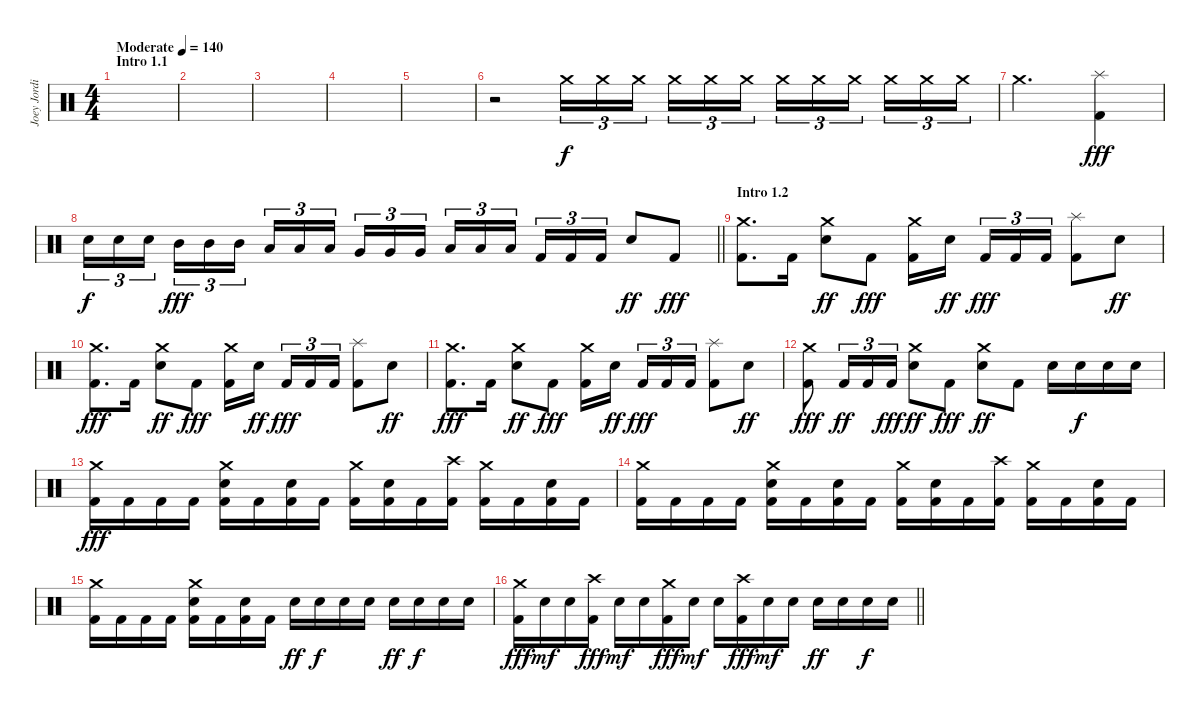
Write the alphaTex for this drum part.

\track ("Joey Jordison" "Joey Jordi") {instrument percussion}
\staff {score}
\articulation defaults
\ts (4 4)
\section ("" "Intro 1.1")
\tempo (140 "Moderate")
\clef neutral
\ks c
|
|
|
|
|
r.2{volume 2} "Crash medium (hit)".16{tu (3 2) volume 5} "Crash medium (hit)".16{tu (3 2)} "Crash medium (hit)".16{tu (3 2) beam splitsecondary} "Crash medium (hit)".16{tu (3 2)} "Crash medium (hit)".16{tu (3 2)} "Crash medium (hit)".16{tu (3 2)} "Crash medium (hit)".16{tu (3 2)} "Crash medium (hit)".16{tu (3 2)} "Crash medium (hit)".16{tu (3 2) beam splitsecondary} "Crash medium (hit)".16{tu (3 2)} "Crash medium (hit)".16{tu (3 2)} "Crash medium (hit)".16{tu (3 2)} |
"Crash medium (hit)".2{d} ("Splash (hit)" "Kick (hit) 2").4{dy fff volume 13} |
\barLineRight lightlight "Electric Snare (hit)".16{tu (3 2) dy f} "Electric Snare (hit)".16{tu (3 2)} "Electric Snare (hit)".16{tu (3 2) beam splitsecondary} "Mid Tom (hit)".16{tu (3 2) dy fff} "Mid Tom (hit)".16{tu (3 2)} "Mid Tom (hit)".16{tu (3 2)} "Low Tom (hit)".16{tu (3 2)} "Low Tom (hit)".16{tu (3 2)} "Low Tom (hit)".16{tu (3 2) beam splitsecondary} "Very Low Tom (hit)".16{tu (3 2)} "Very Low Tom (hit)".16{tu (3 2)} "Very Low Tom (hit)".16{tu (3 2)} "Low Floor Tom (hit)".16{tu (3 2)} "Low Floor Tom (hit)".16{tu (3 2)} "Low Floor Tom (hit)".16{tu (3 2) beam splitsecondary} "Kick (hit) 2".16{tu (3 2)} "Kick (hit) 2".16{tu (3 2)} "Kick (hit) 2".16{tu (3 2)} "Electric Snare (hit)".8{dy ff} "Kick (hit) 2".8{dy fff}
|
\section ("" "Intro 1.2")
("Crash medium (hit)" "Kick (hit) 2").8{d} "Kick (hit) 2".16 ("Crash medium (hit)" "Electric Snare (hit)").8{dy ff} "Kick (hit) 2".8{dy fff} ("Crash medium (hit)" "Kick (hit) 2").16 "Electric Snare (hit)".16{dy ff beam splitsecondary} "Kick (hit) 2".16{tu (3 2) dy fff} "Kick (hit) 2".16{tu (3 2)} "Kick (hit) 2".16{tu (3 2)} ("Splash (hit)" "Kick (hit) 2").8 "Electric Snare (hit)".8{dy ff} |
("Crash medium (hit)" "Kick (hit) 2").8{d dy fff} "Kick (hit) 2".16 ("Crash medium (hit)" "Electric Snare (hit)").8{dy ff} "Kick (hit) 2".8{dy fff} ("Crash medium (hit)" "Kick (hit) 2").16 "Electric Snare (hit)".16{dy ff beam splitsecondary} "Kick (hit) 2".16{tu (3 2) dy fff} "Kick (hit) 2".16{tu (3 2)} "Kick (hit) 2".16{tu (3 2)} ("Splash (hit)" "Kick (hit) 2").8 "Electric Snare (hit)".8{dy ff} |
("Crash medium (hit)" "Kick (hit) 2").8{d dy fff} "Kick (hit) 2".16 ("Crash medium (hit)" "Electric Snare (hit)").8{dy ff} "Kick (hit) 2".8{dy fff} ("Crash medium (hit)" "Kick (hit) 2").16 "Electric Snare (hit)".16{dy ff beam splitsecondary} "Kick (hit) 2".16{tu (3 2) dy fff} "Kick (hit) 2".16{tu (3 2)} "Kick (hit) 2".16{tu (3 2)} ("Splash (hit)" "Kick (hit) 2").8 "Electric Snare (hit)".8{dy ff} |
("Crash medium (hit)" "Kick (hit) 2").8{dy fff} "Kick (hit) 2".16{tu (3 2) dy ff} "Kick (hit) 2".16{tu (3 2)} "Kick (hit) 2".16{tu (3 2) dy fff} ("Crash medium (hit)" "Electric Snare (hit)").8{dy ff} "Kick (hit) 2".8{dy fff} ("Crash medium (hit)" "Electric Snare (hit)").8{dy ff} "Kick (hit) 2".8 "Electric Snare (hit)".16 "Electric Snare (hit)".16{dy f} "Electric Snare (hit)".16 "Electric Snare (hit)".16 |
("Crash medium (hit)" "Kick (hit) 2").16{dy fff} "Kick (hit) 2".16 "Kick (hit) 2".16 "Kick (hit) 2".16 ("Crash medium (hit)" "Electric Snare (hit)" "Kick (hit) 2").16 "Kick (hit) 2".16 ("Electric Snare (hit)" "Kick (hit) 2").16 "Kick (hit) 2".16 ("Crash medium (hit)" "Kick (hit) 2").16 ("Electric Snare (hit)" "Kick (hit) 2").16 "Kick (hit) 2".16 ("Crash high (hit)" "Kick (hit) 2").16 ("Crash medium (hit)" "Kick (hit) 2").16 "Kick (hit) 2".16 ("Electric Snare (hit)" "Kick (hit) 2").16 "Kick (hit) 2".16 |
("Crash medium (hit)" "Kick (hit) 2").16 "Kick (hit) 2".16 "Kick (hit) 2".16 "Kick (hit) 2".16 ("Crash medium (hit)" "Electric Snare (hit)" "Kick (hit) 2").16 "Kick (hit) 2".16 ("Electric Snare (hit)" "Kick (hit) 2").16 "Kick (hit) 2".16 ("Crash medium (hit)" "Kick (hit) 2").16 ("Electric Snare (hit)" "Kick (hit) 2").16 "Kick (hit) 2".16 ("Crash high (hit)" "Kick (hit) 2").16 ("Crash medium (hit)" "Kick (hit) 2").16 "Kick (hit) 2".16 ("Electric Snare (hit)" "Kick (hit) 2").16 "Kick (hit) 2".16 |
("Crash medium (hit)" "Kick (hit) 2").16 "Kick (hit) 2".16 "Kick (hit) 2".16 "Kick (hit) 2".16 ("Crash medium (hit)" "Electric Snare (hit)" "Kick (hit) 2").16 "Kick (hit) 2".16 ("Electric Snare (hit)" "Kick (hit) 2").16 "Kick (hit) 2".16 "Electric Snare (hit)".16{dy ff} "Electric Snare (hit)".16{dy f} "Electric Snare (hit)".16 "Electric Snare (hit)".16 "Electric Snare (hit)".16{dy ff} "Electric Snare (hit)".16{dy f} "Electric Snare (hit)".16 "Electric Snare (hit)".16 |
\barLineRight lightlight
("Crash medium (hit)" "Kick (hit) 2").16{dy fff} "Electric Snare (hit)".16{dy mf} "Electric Snare (hit)".16 ("Crash high (hit)" "Kick (hit) 2").16{dy fff} "Electric Snare (hit)".16{dy mf} "Electric Snare (hit)".16 ("Crash medium (hit)" "Kick (hit) 2").16{dy fff} "Electric Snare (hit)".16{dy mf} "Electric Snare (hit)".16 ("Crash high (hit)" "Kick (hit) 2").16{dy fff} "Electric Snare (hit)".16{dy mf} "Electric Snare (hit)".16 "Electric Snare (hit)".16{dy ff} "Electric Snare (hit)".16 "Electric Snare (hit)".16{dy f} "Electric Snare (hit)".16
